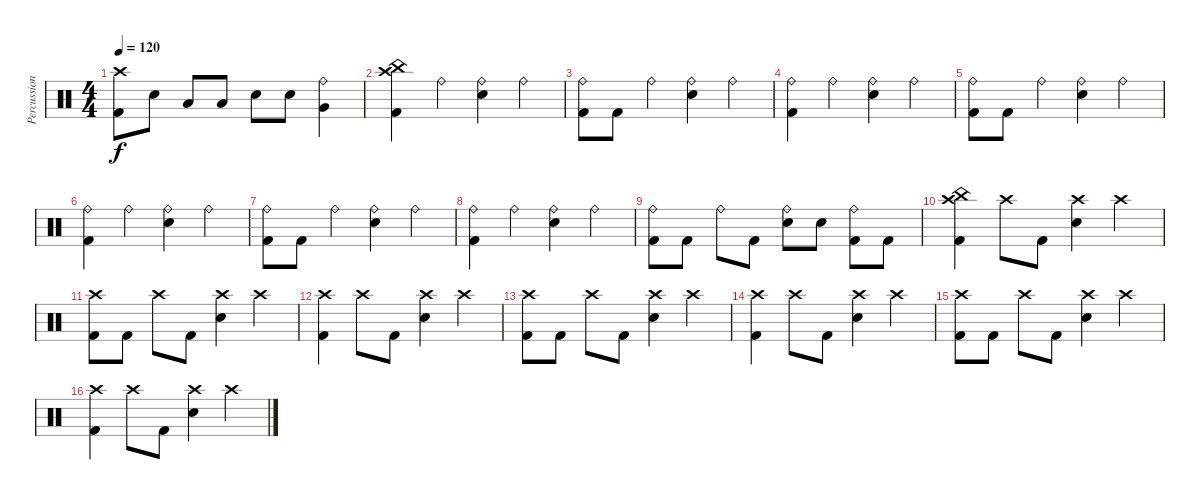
\track ("Percussion" "Percussion") {instrument percussion}
\staff {score}
\articulation defaults
\ts (4 4)
\tempo 120
\clef neutral
\ks c
("Kick (hit) 2" "Crash high (hit)").8{dy f} "Electric Snare (hit)".8 "Low Floor Tom (hit)".8 "Low Floor Tom (hit)".8 "Electric Snare (hit)".8 "Electric Snare (hit)".8 ("Ride (bell)" "Very Low Tom (hit)").4 |
("Kick (hit) 2" "Crash high (hit)" "China (hit)").4 "Ride (bell)".4 ("Electric Snare (hit)" "Ride (bell)").4 "Ride (bell)".4 |
("Kick (hit) 2" "Ride (bell)").8 "Kick (hit) 2".8 "Ride (bell)".4 ("Electric Snare (hit)" "Ride (bell)").4 "Ride (bell)".4 |
("Kick (hit) 2" "Ride (bell)").4 "Ride (bell)".4 ("Electric Snare (hit)" "Ride (bell)").4 "Ride (bell)".4 |
("Kick (hit) 2" "Ride (bell)").8 "Kick (hit) 2".8 "Ride (bell)".4 ("Electric Snare (hit)" "Ride (bell)").4 "Ride (bell)".4 |
("Kick (hit) 2" "Ride (bell)").4 "Ride (bell)".4 ("Electric Snare (hit)" "Ride (bell)").4 "Ride (bell)".4 |
("Kick (hit) 2" "Ride (bell)").8 "Kick (hit) 2".8 "Ride (bell)".4 ("Electric Snare (hit)" "Ride (bell)").4 "Ride (bell)".4 |
("Kick (hit) 2" "Ride (bell)").4 "Ride (bell)".4 ("Electric Snare (hit)" "Ride (bell)").4 "Ride (bell)".4 |
("Kick (hit) 2" "Ride (bell)").8 "Kick (hit) 2".8 "Ride (bell)".8 "Kick (hit) 2".8 ("Electric Snare (hit)" "Ride (bell)").8 "Electric Snare (hit)".8 ("Ride (bell)" "Kick (hit) 2").8 "Kick (hit) 2".8 |
("Kick (hit) 2" "Crash high (hit)" "China (hit)").4 "Crash high (hit)".8 "Kick (hit) 2".8 ("Electric Snare (hit)" "Crash high (hit)").4 "Crash high (hit)".4 |
("Kick (hit) 2" "Crash high (hit)").8 "Kick (hit) 2".8 "Crash high (hit)".8 "Kick (hit) 2".8 ("Electric Snare (hit)" "Crash high (hit)").4 "Crash high (hit)".4 |
("Kick (hit) 2" "Crash high (hit)").4 "Crash high (hit)".8 "Kick (hit) 2".8 ("Electric Snare (hit)" "Crash high (hit)").4 "Crash high (hit)".4 |
("Kick (hit) 2" "Crash high (hit)").8 "Kick (hit) 2".8 "Crash high (hit)".8 "Kick (hit) 2".8 ("Electric Snare (hit)" "Crash high (hit)").4 "Crash high (hit)".4 |
("Kick (hit) 2" "Crash high (hit)").4 "Crash high (hit)".8 "Kick (hit) 2".8 ("Electric Snare (hit)" "Crash high (hit)").4 "Crash high (hit)".4 |
("Kick (hit) 2" "Crash high (hit)").8 "Kick (hit) 2".8 "Crash high (hit)".8 "Kick (hit) 2".8 ("Electric Snare (hit)" "Crash high (hit)").4 "Crash high (hit)".4 |
("Kick (hit) 2" "Crash high (hit)").4 "Crash high (hit)".8 "Kick (hit) 2".8 ("Electric Snare (hit)" "Crash high (hit)").4 "Crash high (hit)".4
